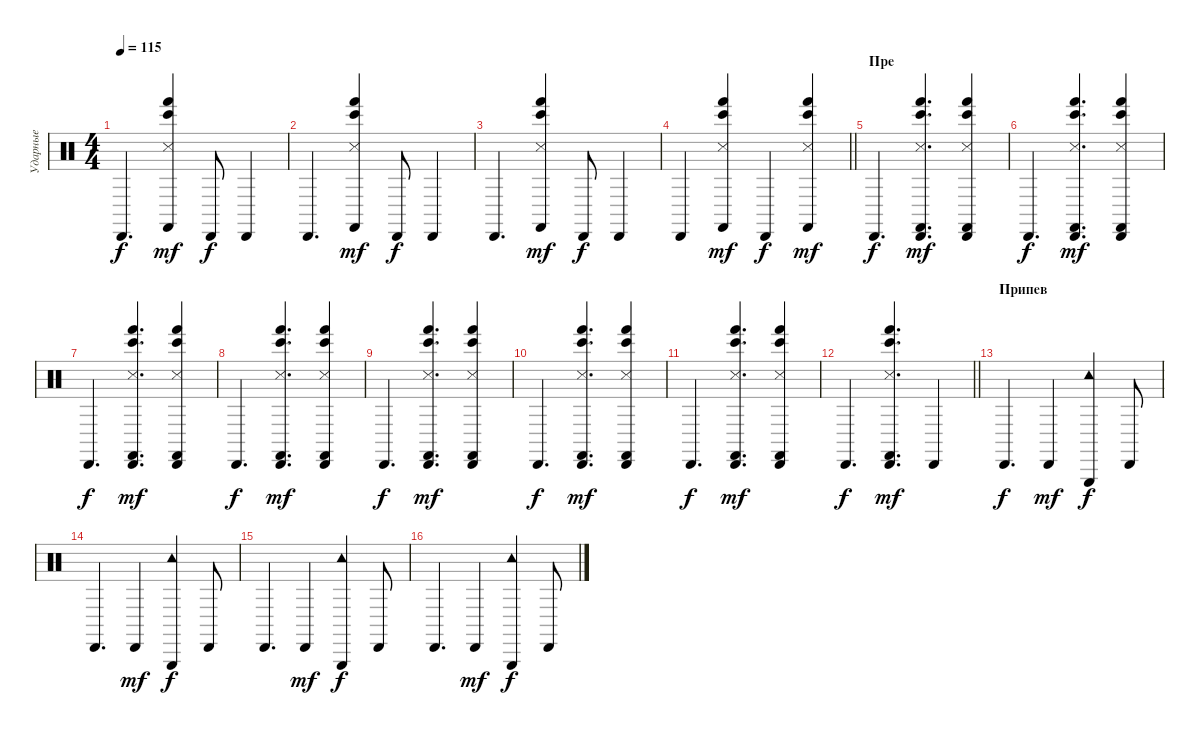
\track ("Ударные" "Ударные") {instrument percussion}
\staff {score}
\articulation defaults
\ts (4 4)
\tempo 115
\clef neutral
\ks c "Cabasa (hit)".4{d dy f}
("Castanets (hit)" "Hand (hit)" "Snare (side stick) 3" "Bongo High (hit)").4{dy mf} "Cabasa (hit)".8{dy f} "Cabasa (hit)".4 |
"Cabasa (hit)".4{d} ("Castanets (hit)" "Hand (hit)" "Snare (side stick) 3" "Bongo High (hit)").4{dy mf} "Cabasa (hit)".8{dy f} "Cabasa (hit)".4 |
"Cabasa (hit)".4{d} ("Castanets (hit)" "Hand (hit)" "Snare (side stick) 3" "Bongo High (hit)").4{dy mf} "Cabasa (hit)".8{dy f} "Cabasa (hit)".4 |
\barLineRight lightlight "Cabasa (hit)".4
("Castanets (hit)" "Hand (hit)" "Snare (side stick) 3" "Bongo High (hit)").4{dy mf} "Cabasa (hit)".4{dy f} ("Castanets (hit)" "Hand (hit)" "Snare (side stick) 3" "Bongo High (hit)").4{dy mf} |
\section ("" "Пре")
"Cabasa (hit)".4{d dy f} ("Castanets (hit)" "Hand (hit)" "Snare (side stick) 3" "Bongo High (hit)" "Cabasa (hit)").4{d dy mf} ("Castanets (hit)" "Hand (hit)" "Snare (side stick) 3" "Bongo High (hit)" "Cabasa (hit)").4 |
"Cabasa (hit)".4{d dy f} ("Castanets (hit)" "Hand (hit)" "Snare (side stick) 3" "Bongo High (hit)" "Cabasa (hit)").4{d dy mf} ("Castanets (hit)" "Hand (hit)" "Snare (side stick) 3" "Bongo High (hit)" "Cabasa (hit)").4 |
"Cabasa (hit)".4{d dy f} ("Castanets (hit)" "Hand (hit)" "Snare (side stick) 3" "Bongo High (hit)" "Cabasa (hit)").4{d dy mf} ("Castanets (hit)" "Hand (hit)" "Snare (side stick) 3" "Bongo High (hit)" "Cabasa (hit)").4 |
"Cabasa (hit)".4{d dy f} ("Castanets (hit)" "Hand (hit)" "Snare (side stick) 3" "Bongo High (hit)" "Cabasa (hit)").4{d dy mf} ("Castanets (hit)" "Hand (hit)" "Snare (side stick) 3" "Bongo High (hit)" "Cabasa (hit)").4 |
"Cabasa (hit)".4{d dy f} ("Castanets (hit)" "Hand (hit)" "Snare (side stick) 3" "Bongo High (hit)" "Cabasa (hit)").4{d dy mf} ("Castanets (hit)" "Hand (hit)" "Snare (side stick) 3" "Bongo High (hit)" "Cabasa (hit)").4 |
"Cabasa (hit)".4{d dy f} ("Castanets (hit)" "Hand (hit)" "Snare (side stick) 3" "Bongo High (hit)" "Cabasa (hit)").4{d dy mf} ("Castanets (hit)" "Hand (hit)" "Snare (side stick) 3" "Bongo High (hit)" "Cabasa (hit)").4 |
"Cabasa (hit)".4{d dy f} ("Castanets (hit)" "Hand (hit)" "Snare (side stick) 3" "Bongo High (hit)" "Cabasa (hit)").4{d dy mf} ("Castanets (hit)" "Hand (hit)" "Snare (side stick) 3" "Bongo High (hit)" "Cabasa (hit)").4 |
\barLineRight lightlight "Cabasa (hit)".4{d dy f}
("Castanets (hit)" "Hand (hit)" "Snare (side stick) 3" "Bongo High (hit)" "Cabasa (hit)").4{d dy mf} "Cabasa (hit)".4 |
\section ("" "Припев")
"Cabasa (hit)".4{d dy f} "Cabasa (hit)".4{dy mf} ("Tambourine (hit)" "Triangle (hit)").4{dy f} "Cabasa (hit)".8 |
"Cabasa (hit)".4{d} "Cabasa (hit)".4{dy mf} ("Tambourine (hit)" "Triangle (hit)").4{dy f} "Cabasa (hit)".8 |
"Cabasa (hit)".4{d} "Cabasa (hit)".4{dy mf} ("Tambourine (hit)" "Triangle (hit)").4{dy f} "Cabasa (hit)".8 |
"Cabasa (hit)".4{d} "Cabasa (hit)".4{dy mf} ("Tambourine (hit)" "Triangle (hit)").4{dy f} "Cabasa (hit)".8
